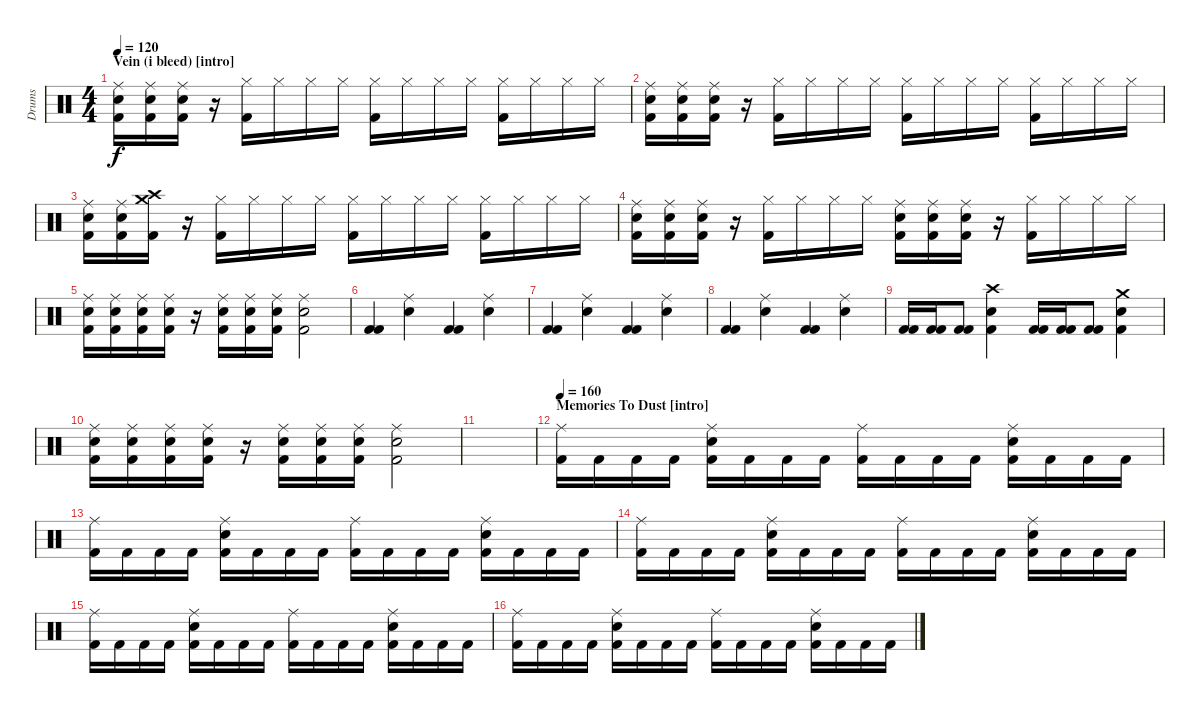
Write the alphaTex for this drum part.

\track ("Drums" "Drums") {instrument percussion}
\staff {score}
\articulation defaults
\ts (4 4)
\section ("" "Vein (i bleed) [intro]")
\tempo 120
\clef neutral
\ks c
("Kick (hit) 2" "Electric Snare (hit)" "Ride (middle)").16{dy f volume 12} ("Kick (hit) 2" "Electric Snare (hit)" "Ride (middle)").16 ("Kick (hit) 2" "Electric Snare (hit)" "Ride (middle)").16 r.16 ("Kick (hit) 2" "Hi-Hat (closed)").16 "Hi-Hat (closed)".16{volume 6} "Hi-Hat (closed)".16 "Hi-Hat (closed)".16 ("Kick (hit) 2" "Hi-Hat (closed)").16{volume 12} "Hi-Hat (closed)".16{volume 6} "Hi-Hat (closed)".16 "Hi-Hat (closed)".16 ("Kick (hit) 2" "Hi-Hat (closed)").16{volume 12} "Hi-Hat (closed)".16{volume 6} "Hi-Hat (closed)".16 "Hi-Hat (closed)".16 |
("Kick (hit) 2" "Electric Snare (hit)" "Ride (middle)").16{volume 12} ("Kick (hit) 2" "Electric Snare (hit)" "Ride (middle)").16 ("Kick (hit) 2" "Electric Snare (hit)" "Ride (middle)").16 r.16 ("Kick (hit) 2" "Hi-Hat (closed)").16 "Hi-Hat (closed)".16{volume 6} "Hi-Hat (closed)".16 "Hi-Hat (closed)".16 ("Kick (hit) 2" "Hi-Hat (closed)").16{volume 12} "Hi-Hat (closed)".16{volume 6} "Hi-Hat (closed)".16 "Hi-Hat (closed)".16 ("Kick (hit) 2" "Hi-Hat (closed)").16{volume 12} "Hi-Hat (closed)".16{volume 6} "Hi-Hat (closed)".16 "Hi-Hat (closed)".16 |
("Kick (hit) 2" "Electric Snare (hit)" "Ride (middle)").16{volume 12} ("Kick (hit) 2" "Electric Snare (hit)" "Ride (middle)").16 ("Kick (hit) 2" "Crash medium (hit)" "Crash high (hit)").16 r.16 ("Kick (hit) 2" "Hi-Hat (closed)").16 "Hi-Hat (closed)".16{volume 6} "Hi-Hat (closed)".16 "Hi-Hat (closed)".16 ("Kick (hit) 2" "Hi-Hat (closed)").16{volume 12} "Hi-Hat (closed)".16{volume 6} "Hi-Hat (closed)".16 "Hi-Hat (closed)".16 ("Kick (hit) 2" "Hi-Hat (closed)").16{volume 12} "Hi-Hat (closed)".16{volume 6} "Hi-Hat (closed)".16 "Hi-Hat (closed)".16 |
("Kick (hit) 2" "Electric Snare (hit)" "Ride (middle)").16{volume 12} ("Kick (hit) 2" "Electric Snare (hit)" "Ride (middle)").16 ("Kick (hit) 2" "Electric Snare (hit)" "Ride (middle)").16 r.16 ("Kick (hit) 2" "Hi-Hat (closed)").16 "Hi-Hat (closed)".16{volume 6} "Hi-Hat (closed)".16 "Hi-Hat (closed)".16 ("Kick (hit) 2" "Electric Snare (hit)" "Ride (middle)").16{volume 12} ("Kick (hit) 2" "Electric Snare (hit)" "Ride (middle)").16 ("Kick (hit) 2" "Electric Snare (hit)" "Ride (middle)").16 r.16 ("Kick (hit) 2" "Hi-Hat (closed)").16 "Hi-Hat (closed)".16{volume 6} "Hi-Hat (closed)".16 "Hi-Hat (closed)".16 |
("Kick (hit) 2" "Electric Snare (hit)" "Ride (middle)").16{volume 12} ("Kick (hit) 2" "Electric Snare (hit)" "Ride (middle)").16 ("Kick (hit) 2" "Electric Snare (hit)" "Ride (middle)").16 ("Kick (hit) 2" "Electric Snare (hit)" "Ride (middle)").16 r.16 ("Kick (hit) 2" "Electric Snare (hit)" "Ride (middle)").16 ("Kick (hit) 2" "Electric Snare (hit)" "Ride (middle)").16 ("Kick (hit) 2" "Electric Snare (hit)" "Ride (middle)").16 ("Kick (hit) 2" "Electric Snare (hit)" "Ride (middle)").2 |
("Kick (hit) 2" "Kick (hit) 2").4 ("Electric Snare (hit)" "Ride (middle)").4 ("Kick (hit) 2" "Kick (hit) 2").4 ("Electric Snare (hit)" "Ride (middle)").4 |
("Kick (hit) 2" "Kick (hit) 2").4 ("Electric Snare (hit)" "Ride (middle)").4 ("Kick (hit) 2" "Kick (hit) 2").4 ("Electric Snare (hit)" "Ride (middle)").4 |
("Kick (hit) 2" "Kick (hit) 2").4 ("Electric Snare (hit)" "Ride (middle)").4 ("Kick (hit) 2" "Kick (hit) 2").4 ("Electric Snare (hit)" "Ride (middle)").4 |
("Kick (hit) 2" "Kick (hit) 2").16 ("Kick (hit) 2" "Kick (hit) 2").16 ("Kick (hit) 2" "Kick (hit) 2").8 ("Kick (hit) 2" "Electric Snare (hit)" "Crash high (hit)").4 ("Kick (hit) 2" "Kick (hit) 2").16 ("Kick (hit) 2" "Kick (hit) 2").16 ("Kick (hit) 2" "Kick (hit) 2").8 ("Kick (hit) 2" "Electric Snare (hit)" "Crash medium (hit)").4 |
("Kick (hit) 2" "Electric Snare (hit)" "Ride (middle)").16{volume 12} ("Kick (hit) 2" "Electric Snare (hit)" "Ride (middle)").16 ("Kick (hit) 2" "Electric Snare (hit)" "Ride (middle)").16 ("Kick (hit) 2" "Electric Snare (hit)" "Ride (middle)").16 r.16 ("Kick (hit) 2" "Electric Snare (hit)" "Ride (middle)").16 ("Kick (hit) 2" "Electric Snare (hit)" "Ride (middle)").16 ("Kick (hit) 2" "Electric Snare (hit)" "Ride (middle)").16 ("Kick (hit) 2" "Electric Snare (hit)" "Ride (middle)").2 |
|
\section ("" "Memories To Dust [intro]")
\tempo 160
("Kick (hit) 2" "Ride (middle)").16 "Kick (hit) 2".16 "Kick (hit) 2".16 "Kick (hit) 2".16 ("Kick (hit) 2" "Electric Snare (hit)" "Ride (middle)").16 "Kick (hit) 2".16 "Kick (hit) 2".16 "Kick (hit) 2".16 ("Kick (hit) 2" "Ride (middle)").16 "Kick (hit) 2".16 "Kick (hit) 2".16 "Kick (hit) 2".16 ("Kick (hit) 2" "Electric Snare (hit)" "Ride (middle)").16 "Kick (hit) 2".16 "Kick (hit) 2".16 "Kick (hit) 2".16 |
("Kick (hit) 2" "Ride (middle)").16 "Kick (hit) 2".16 "Kick (hit) 2".16 "Kick (hit) 2".16 ("Kick (hit) 2" "Electric Snare (hit)" "Ride (middle)").16 "Kick (hit) 2".16 "Kick (hit) 2".16 "Kick (hit) 2".16 ("Kick (hit) 2" "Ride (middle)").16 "Kick (hit) 2".16 "Kick (hit) 2".16 "Kick (hit) 2".16 ("Kick (hit) 2" "Electric Snare (hit)" "Ride (middle)").16 "Kick (hit) 2".16 "Kick (hit) 2".16 "Kick (hit) 2".16 |
("Kick (hit) 2" "Ride (middle)").16 "Kick (hit) 2".16 "Kick (hit) 2".16 "Kick (hit) 2".16 ("Kick (hit) 2" "Electric Snare (hit)" "Ride (middle)").16 "Kick (hit) 2".16 "Kick (hit) 2".16 "Kick (hit) 2".16 ("Kick (hit) 2" "Ride (middle)").16 "Kick (hit) 2".16 "Kick (hit) 2".16 "Kick (hit) 2".16 ("Kick (hit) 2" "Electric Snare (hit)" "Ride (middle)").16 "Kick (hit) 2".16 "Kick (hit) 2".16 "Kick (hit) 2".16 |
("Kick (hit) 2" "Ride (middle)").16 "Kick (hit) 2".16 "Kick (hit) 2".16 "Kick (hit) 2".16 ("Kick (hit) 2" "Electric Snare (hit)" "Ride (middle)").16 "Kick (hit) 2".16 "Kick (hit) 2".16 "Kick (hit) 2".16 ("Kick (hit) 2" "Ride (middle)").16 "Kick (hit) 2".16 "Kick (hit) 2".16 "Kick (hit) 2".16 ("Kick (hit) 2" "Electric Snare (hit)" "Ride (middle)").16 "Kick (hit) 2".16 "Kick (hit) 2".16 "Kick (hit) 2".16 |
("Kick (hit) 2" "Ride (middle)").16 "Kick (hit) 2".16 "Kick (hit) 2".16 "Kick (hit) 2".16 ("Kick (hit) 2" "Electric Snare (hit)" "Ride (middle)").16 "Kick (hit) 2".16 "Kick (hit) 2".16 "Kick (hit) 2".16 ("Kick (hit) 2" "Ride (middle)").16 "Kick (hit) 2".16 "Kick (hit) 2".16 "Kick (hit) 2".16 ("Kick (hit) 2" "Electric Snare (hit)" "Ride (middle)").16 "Kick (hit) 2".16 "Kick (hit) 2".16 "Kick (hit) 2".16
